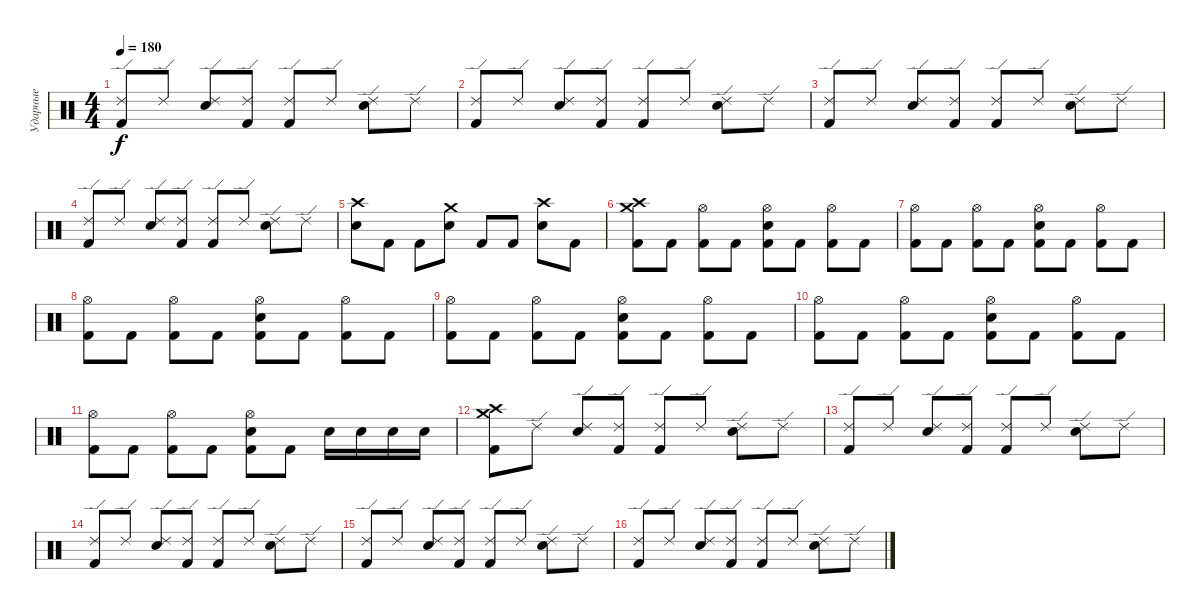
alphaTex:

\track ("Ударные" "Ударные") {instrument percussion}
\staff {score}
\articulation defaults
\ts (4 4)
\tempo 180
\clef neutral
\ks c
("Ride (edge) 2" "Kick (hit) 2").8{dy f} "Ride (edge) 2".8 ("Ride (edge) 2" "Electric Snare (hit)").8 ("Ride (edge) 2" "Kick (hit) 2").8 ("Ride (edge) 2" "Kick (hit) 2").8 "Ride (edge) 2".8 ("Ride (edge) 2" "Electric Snare (hit)").8 "Ride (edge) 2".8 |
("Ride (edge) 2" "Kick (hit) 2").8 "Ride (edge) 2".8 ("Ride (edge) 2" "Electric Snare (hit)").8 ("Ride (edge) 2" "Kick (hit) 2").8 ("Ride (edge) 2" "Kick (hit) 2").8 "Ride (edge) 2".8 ("Ride (edge) 2" "Electric Snare (hit)").8 "Ride (edge) 2".8 |
("Ride (edge) 2" "Kick (hit) 2").8 "Ride (edge) 2".8 ("Ride (edge) 2" "Electric Snare (hit)").8 ("Ride (edge) 2" "Kick (hit) 2").8 ("Ride (edge) 2" "Kick (hit) 2").8 "Ride (edge) 2".8 ("Ride (edge) 2" "Electric Snare (hit)").8 "Ride (edge) 2".8 |
("Ride (edge) 2" "Kick (hit) 2").8 "Ride (edge) 2".8 ("Ride (edge) 2" "Electric Snare (hit)").8 ("Ride (edge) 2" "Kick (hit) 2").8 ("Ride (edge) 2" "Kick (hit) 2").8 "Ride (edge) 2".8 ("Ride (edge) 2" "Electric Snare (hit)").8 "Ride (edge) 2".8 |
("Crash high (hit)" "Electric Snare (hit)").8 "Kick (hit) 2".8 "Kick (hit) 2".8 ("Crash medium (hit)" "Electric Snare (hit)").8 "Kick (hit) 2".8 "Kick (hit) 2".8 ("Crash high (hit)" "Electric Snare (hit)").8 "Kick (hit) 2".8 |
("Crash medium (hit)" "Crash high (hit)" "Kick (hit) 2").8 "Kick (hit) 2".8 ("Hi-Hat (open)" "Kick (hit) 2").8 "Kick (hit) 2".8 ("Hi-Hat (open)" "Electric Snare (hit)" "Kick (hit) 2").8 "Kick (hit) 2".8 ("Hi-Hat (open)" "Kick (hit) 2").8 "Kick (hit) 2".8 |
("Hi-Hat (open)" "Kick (hit) 2").8 "Kick (hit) 2".8 ("Hi-Hat (open)" "Kick (hit) 2").8 "Kick (hit) 2".8 ("Hi-Hat (open)" "Electric Snare (hit)" "Kick (hit) 2").8 "Kick (hit) 2".8 ("Hi-Hat (open)" "Kick (hit) 2").8 "Kick (hit) 2".8 |
("Hi-Hat (open)" "Kick (hit) 2").8 "Kick (hit) 2".8 ("Hi-Hat (open)" "Kick (hit) 2").8 "Kick (hit) 2".8 ("Hi-Hat (open)" "Electric Snare (hit)" "Kick (hit) 2").8 "Kick (hit) 2".8 ("Hi-Hat (open)" "Kick (hit) 2").8 "Kick (hit) 2".8 |
("Hi-Hat (open)" "Kick (hit) 2").8 "Kick (hit) 2".8 ("Hi-Hat (open)" "Kick (hit) 2").8 "Kick (hit) 2".8 ("Hi-Hat (open)" "Electric Snare (hit)" "Kick (hit) 2").8 "Kick (hit) 2".8 ("Hi-Hat (open)" "Kick (hit) 2").8 "Kick (hit) 2".8 |
("Hi-Hat (open)" "Kick (hit) 2").8 "Kick (hit) 2".8 ("Hi-Hat (open)" "Kick (hit) 2").8 "Kick (hit) 2".8 ("Hi-Hat (open)" "Electric Snare (hit)" "Kick (hit) 2").8 "Kick (hit) 2".8 ("Hi-Hat (open)" "Kick (hit) 2").8 "Kick (hit) 2".8 |
("Hi-Hat (open)" "Kick (hit) 2").8 "Kick (hit) 2".8 ("Hi-Hat (open)" "Kick (hit) 2").8 "Kick (hit) 2".8 ("Hi-Hat (open)" "Electric Snare (hit)" "Kick (hit) 2").8 "Kick (hit) 2".8 "Electric Snare (hit)".16 "Electric Snare (hit)".16 "Electric Snare (hit)".16 "Electric Snare (hit)".16 |
("Crash medium (hit)" "Crash high (hit)" "Kick (hit) 2").8 "Ride (edge) 2".8 ("Ride (edge) 2" "Electric Snare (hit)").8 ("Ride (edge) 2" "Kick (hit) 2").8 ("Ride (edge) 2" "Kick (hit) 2").8 "Ride (edge) 2".8 ("Ride (edge) 2" "Electric Snare (hit)").8 "Ride (edge) 2".8 |
("Ride (edge) 2" "Kick (hit) 2").8 "Ride (edge) 2".8 ("Ride (edge) 2" "Electric Snare (hit)").8 ("Ride (edge) 2" "Kick (hit) 2").8 ("Ride (edge) 2" "Kick (hit) 2").8 "Ride (edge) 2".8 ("Ride (edge) 2" "Electric Snare (hit)").8 "Ride (edge) 2".8 |
("Ride (edge) 2" "Kick (hit) 2").8 "Ride (edge) 2".8 ("Ride (edge) 2" "Electric Snare (hit)").8 ("Ride (edge) 2" "Kick (hit) 2").8 ("Ride (edge) 2" "Kick (hit) 2").8 "Ride (edge) 2".8 ("Ride (edge) 2" "Electric Snare (hit)").8 "Ride (edge) 2".8 |
("Ride (edge) 2" "Kick (hit) 2").8 "Ride (edge) 2".8 ("Ride (edge) 2" "Electric Snare (hit)").8 ("Ride (edge) 2" "Kick (hit) 2").8 ("Ride (edge) 2" "Kick (hit) 2").8 "Ride (edge) 2".8 ("Ride (edge) 2" "Electric Snare (hit)").8 "Ride (edge) 2".8 |
("Ride (edge) 2" "Kick (hit) 2").8 "Ride (edge) 2".8 ("Ride (edge) 2" "Electric Snare (hit)").8 ("Ride (edge) 2" "Kick (hit) 2").8 ("Ride (edge) 2" "Kick (hit) 2").8 "Ride (edge) 2".8 ("Ride (edge) 2" "Electric Snare (hit)").8 "Ride (edge) 2".8
